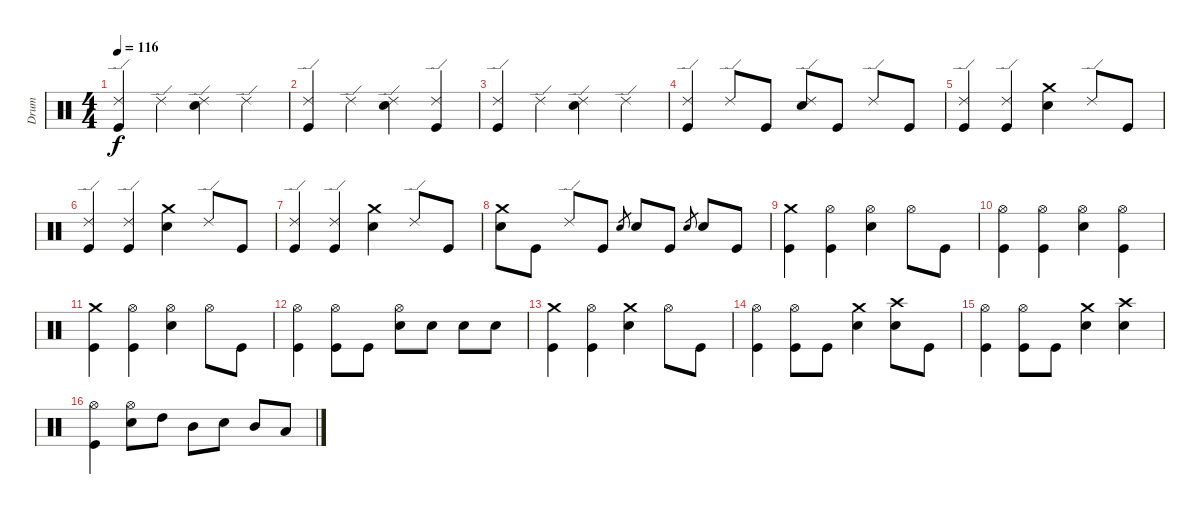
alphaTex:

\track ("Drum" "Drum") {instrument percussion}
\staff {score}
\articulation defaults
\ts (4 4)
\tempo 116
\clef neutral
\ks c
("Kick (hit)" "Ride (edge) 2").4{dy f} "Ride (edge) 2".4 ("Electric Snare (hit)" "Ride (edge) 2").4 "Ride (edge) 2".4 |
("Kick (hit)" "Ride (edge) 2").4 "Ride (edge) 2".4 ("Electric Snare (hit)" "Ride (edge) 2").4 ("Kick (hit)" "Ride (edge) 2").4 |
("Kick (hit)" "Ride (edge) 2").4 "Ride (edge) 2".4 ("Electric Snare (hit)" "Ride (edge) 2").4 "Ride (edge) 2".4 |
("Kick (hit)" "Ride (edge) 2").4 "Ride (edge) 2".8 "Kick (hit)".8 ("Electric Snare (hit)" "Ride (edge) 2").8 "Kick (hit)".8 "Ride (edge) 2".8 "Kick (hit)".8 |
("Kick (hit)" "Ride (edge) 2").4 ("Kick (hit)" "Ride (edge) 2").4 ("Electric Snare (hit)" "Crash medium (hit)").4 "Ride (edge) 2".8 "Kick (hit)".8 |
("Kick (hit)" "Ride (edge) 2").4 ("Kick (hit)" "Ride (edge) 2").4 ("Electric Snare (hit)" "Crash medium (hit)").4 "Ride (edge) 2".8 "Kick (hit)".8 |
("Kick (hit)" "Ride (edge) 2").4 ("Kick (hit)" "Ride (edge) 2").4 ("Electric Snare (hit)" "Crash medium (hit)").4 "Ride (edge) 2".8 "Kick (hit)".8 |
("Electric Snare (hit)" "Crash medium (hit)").8 "Kick (hit)".8 "Ride (edge) 2".8 "Kick (hit)".8 "Electric Snare (hit)".8{gr} "Electric Snare (hit)".8 "Kick (hit)".8 "Electric Snare (hit)".8{gr} "Electric Snare (hit)".8 "Kick (hit)".8 |
("Kick (hit)" "Crash medium (hit)").4 ("Kick (hit)" "Hi-Hat (open)").4 ("Electric Snare (hit)" "Hi-Hat (open)").4 "Hi-Hat (open)".8 "Kick (hit)".8 |
("Kick (hit)" "Hi-Hat (open)").4 ("Kick (hit)" "Hi-Hat (open)").4 ("Electric Snare (hit)" "Hi-Hat (open)").4 ("Kick (hit)" "Hi-Hat (open)").4 |
("Kick (hit)" "Crash medium (hit)").4 ("Kick (hit)" "Hi-Hat (open)").4 ("Electric Snare (hit)" "Hi-Hat (open)").4 "Hi-Hat (open)".8 "Kick (hit)".8 |
("Kick (hit)" "Hi-Hat (open)").4 ("Kick (hit)" "Hi-Hat (open)").8 "Kick (hit)".8 ("Electric Snare (hit)" "Hi-Hat (open)").8 "Electric Snare (hit)".8 "Electric Snare (hit)".8 "Electric Snare (hit)".8 |
("Kick (hit)" "Crash medium (hit)").4 ("Kick (hit)" "Hi-Hat (open)").4 ("Electric Snare (hit)" "Crash medium (hit)").4 "Hi-Hat (open)".8 "Kick (hit)".8 |
("Kick (hit)" "Hi-Hat (open)").4 ("Kick (hit)" "Hi-Hat (open)").8 "Kick (hit)".8 ("Electric Snare (hit)" "Crash medium (hit)").4 ("Electric Snare (hit)" "Crash high (hit)").8 "Kick (hit)".8 |
("Kick (hit)" "Hi-Hat (open)").4 ("Kick (hit)" "Hi-Hat (open)").8 "Kick (hit)".8 ("Electric Snare (hit)" "Crash medium (hit)").4 ("Electric Snare (hit)" "Crash high (hit)").4 |
("Kick (hit)" "Hi-Hat (open)").4 ("Electric Snare (hit)" "Hi-Hat (open)").8 "High Tom (hit)".8 "Mid Tom (hit)".8 "Electric Snare (hit)".8 "Mid Tom (hit)".8 "Low Tom (hit)".8
